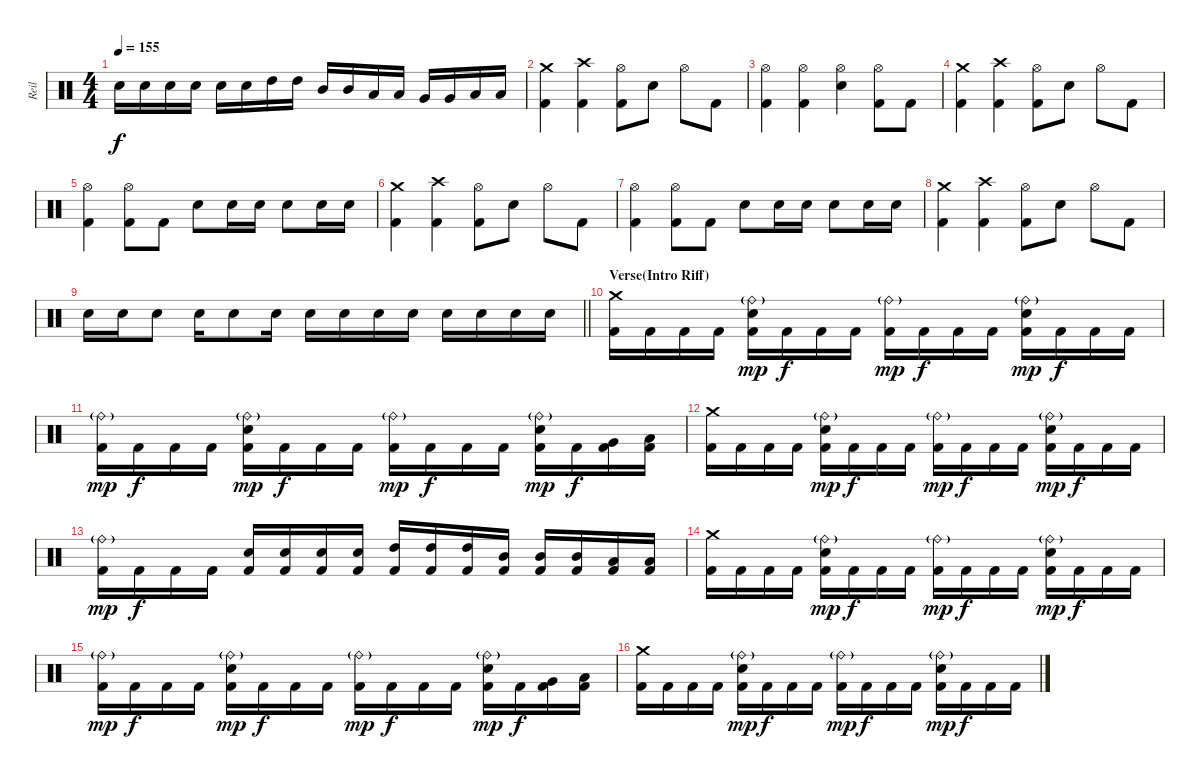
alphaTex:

\track ("Reil" "Reil") {instrument percussion}
\staff {score}
\articulation defaults
\ts (4 4)
\tempo 155
\clef neutral
\ks c "Electric Snare (hit)".16{dy f} "Electric Snare (hit)".16 "Electric Snare (hit)".16 "Electric Snare (hit)".16 "Electric Snare (hit)".16 "Electric Snare (hit)".16 "High Tom (hit)".16 "High Tom (hit)".16 "Mid Tom (hit)".16 "Mid Tom (hit)".16 "Low Tom (hit)".16 "Low Tom (hit)".16 "Very Low Tom (hit)".16 "Very Low Tom (hit)".16 "Low Floor Tom (hit)".16 "Low Floor Tom (hit)".16
|
("Crash medium (hit)" "Kick (hit) 2").4 ("Crash high (hit)" "Kick (hit) 2").4 ("Hi-Hat (open)" "Kick (hit) 2").8 "Electric Snare (hit)".8 "Hi-Hat (open)".8 "Kick (hit) 2".8 |
("Hi-Hat (open)" "Kick (hit) 2").4 ("Hi-Hat (open)" "Kick (hit) 2").4 ("Hi-Hat (open)" "Electric Snare (hit)").4 ("Hi-Hat (open)" "Kick (hit) 2").8 "Kick (hit) 2".8 |
("Crash medium (hit)" "Kick (hit) 2").4 ("Crash high (hit)" "Kick (hit) 2").4 ("Hi-Hat (open)" "Kick (hit) 2").8 "Electric Snare (hit)".8 "Hi-Hat (open)".8 "Kick (hit) 2".8 |
("Hi-Hat (open)" "Kick (hit) 2").4 ("Hi-Hat (open)" "Kick (hit) 2").8 "Kick (hit) 2".8 "Electric Snare (hit)".8 "Electric Snare (hit)".16 "Electric Snare (hit)".16 "Electric Snare (hit)".8 "Electric Snare (hit)".16 "Electric Snare (hit)".16 |
("Crash medium (hit)" "Kick (hit) 2").4 ("Crash high (hit)" "Kick (hit) 2").4 ("Hi-Hat (open)" "Kick (hit) 2").8 "Electric Snare (hit)".8 "Hi-Hat (open)".8 "Kick (hit) 2".8 |
("Hi-Hat (open)" "Kick (hit) 2").4 ("Hi-Hat (open)" "Kick (hit) 2").8 "Kick (hit) 2".8 "Electric Snare (hit)".8 "Electric Snare (hit)".16 "Electric Snare (hit)".16 "Electric Snare (hit)".8 "Electric Snare (hit)".16 "Electric Snare (hit)".16 |
("Crash medium (hit)" "Kick (hit) 2").4 ("Crash high (hit)" "Kick (hit) 2").4 ("Hi-Hat (open)" "Kick (hit) 2").8 "Electric Snare (hit)".8 "Hi-Hat (open)".8 "Kick (hit) 2".8 |
\barLineRight lightlight "Electric Snare (hit)".16 "Electric Snare (hit)".16 "Electric Snare (hit)".8 "Electric Snare (hit)".16 "Electric Snare (hit)".8 "Electric Snare (hit)".16 "Electric Snare (hit)".16 "Electric Snare (hit)".16 "Electric Snare (hit)".16 "Electric Snare (hit)".16 "Electric Snare (hit)".16 "Electric Snare (hit)".16 "Electric Snare (hit)".16 "Electric Snare (hit)".16
|
\section ("" "Verse(Intro Riff)")
("Crash medium (hit)" "Kick (hit) 2").16 "Kick (hit) 2".16 "Kick (hit) 2".16 "Kick (hit) 2".16 ("Ride (bell)"{g} "Electric Snare (hit)" "Kick (hit) 2").16{dy mp} "Kick (hit) 2".16{dy f} "Kick (hit) 2".16 "Kick (hit) 2".16 ("Ride (bell)"{g} "Kick (hit) 2").16{dy mp} "Kick (hit) 2".16{dy f} "Kick (hit) 2".16 "Kick (hit) 2".16 ("Ride (bell)"{g} "Electric Snare (hit)" "Kick (hit) 2").16{dy mp} "Kick (hit) 2".16{dy f} "Kick (hit) 2".16 "Kick (hit) 2".16 |
("Ride (bell)"{g} "Kick (hit) 2").16{dy mp} "Kick (hit) 2".16{dy f} "Kick (hit) 2".16 "Kick (hit) 2".16 ("Ride (bell)"{g} "Electric Snare (hit)" "Kick (hit) 2").16{dy mp} "Kick (hit) 2".16{dy f} "Kick (hit) 2".16 "Kick (hit) 2".16 ("Ride (bell)"{g} "Kick (hit) 2").16{dy mp} "Kick (hit) 2".16{dy f} "Kick (hit) 2".16 "Kick (hit) 2".16 ("Ride (bell)"{g} "Electric Snare (hit)" "Kick (hit) 2").16{dy mp} "Kick (hit) 2".16{dy f} ("Very Low Tom (hit)" "Kick (hit) 2").16 ("Low Floor Tom (hit)" "Kick (hit) 2").16 |
("Crash medium (hit)" "Kick (hit) 2").16 "Kick (hit) 2".16 "Kick (hit) 2".16 "Kick (hit) 2".16 ("Ride (bell)"{g} "Electric Snare (hit)" "Kick (hit) 2").16{dy mp} "Kick (hit) 2".16{dy f} "Kick (hit) 2".16 "Kick (hit) 2".16 ("Ride (bell)"{g} "Kick (hit) 2").16{dy mp} "Kick (hit) 2".16{dy f} "Kick (hit) 2".16 "Kick (hit) 2".16 ("Ride (bell)"{g} "Electric Snare (hit)" "Kick (hit) 2").16{dy mp} "Kick (hit) 2".16{dy f} "Kick (hit) 2".16 "Kick (hit) 2".16 |
("Ride (bell)"{g} "Kick (hit) 2").16{dy mp} "Kick (hit) 2".16{dy f} "Kick (hit) 2".16 "Kick (hit) 2".16 ("Electric Snare (hit)" "Kick (hit) 2").16 ("Electric Snare (hit)" "Kick (hit) 2").16 ("Electric Snare (hit)" "Kick (hit) 2").16 ("Electric Snare (hit)" "Kick (hit) 2").16 ("High Tom (hit)" "Kick (hit) 2").16 ("High Tom (hit)" "Kick (hit) 2").16 ("High Tom (hit)" "Kick (hit) 2").16 ("Mid Tom (hit)" "Kick (hit) 2").16 ("Mid Tom (hit)" "Kick (hit) 2").16 ("Mid Tom (hit)" "Kick (hit) 2").16 ("Low Tom (hit)" "Kick (hit) 2").16 ("Low Tom (hit)" "Kick (hit) 2").16 |
("Crash medium (hit)" "Kick (hit) 2").16 "Kick (hit) 2".16 "Kick (hit) 2".16 "Kick (hit) 2".16 ("Ride (bell)"{g} "Electric Snare (hit)" "Kick (hit) 2").16{dy mp} "Kick (hit) 2".16{dy f} "Kick (hit) 2".16 "Kick (hit) 2".16 ("Ride (bell)"{g} "Kick (hit) 2").16{dy mp} "Kick (hit) 2".16{dy f} "Kick (hit) 2".16 "Kick (hit) 2".16 ("Ride (bell)"{g} "Electric Snare (hit)" "Kick (hit) 2").16{dy mp} "Kick (hit) 2".16{dy f} "Kick (hit) 2".16 "Kick (hit) 2".16 |
("Ride (bell)"{g} "Kick (hit) 2").16{dy mp} "Kick (hit) 2".16{dy f} "Kick (hit) 2".16 "Kick (hit) 2".16 ("Ride (bell)"{g} "Electric Snare (hit)" "Kick (hit) 2").16{dy mp} "Kick (hit) 2".16{dy f} "Kick (hit) 2".16 "Kick (hit) 2".16 ("Ride (bell)"{g} "Kick (hit) 2").16{dy mp} "Kick (hit) 2".16{dy f} "Kick (hit) 2".16 "Kick (hit) 2".16 ("Ride (bell)"{g} "Electric Snare (hit)" "Kick (hit) 2").16{dy mp} "Kick (hit) 2".16{dy f} ("Very Low Tom (hit)" "Kick (hit) 2").16 ("Low Floor Tom (hit)" "Kick (hit) 2").16 |
("Crash medium (hit)" "Kick (hit) 2").16 "Kick (hit) 2".16 "Kick (hit) 2".16 "Kick (hit) 2".16 ("Ride (bell)"{g} "Electric Snare (hit)" "Kick (hit) 2").16{dy mp} "Kick (hit) 2".16{dy f} "Kick (hit) 2".16 "Kick (hit) 2".16 ("Ride (bell)"{g} "Kick (hit) 2").16{dy mp} "Kick (hit) 2".16{dy f} "Kick (hit) 2".16 "Kick (hit) 2".16 ("Ride (bell)"{g} "Electric Snare (hit)" "Kick (hit) 2").16{dy mp} "Kick (hit) 2".16{dy f} "Kick (hit) 2".16 "Kick (hit) 2".16
